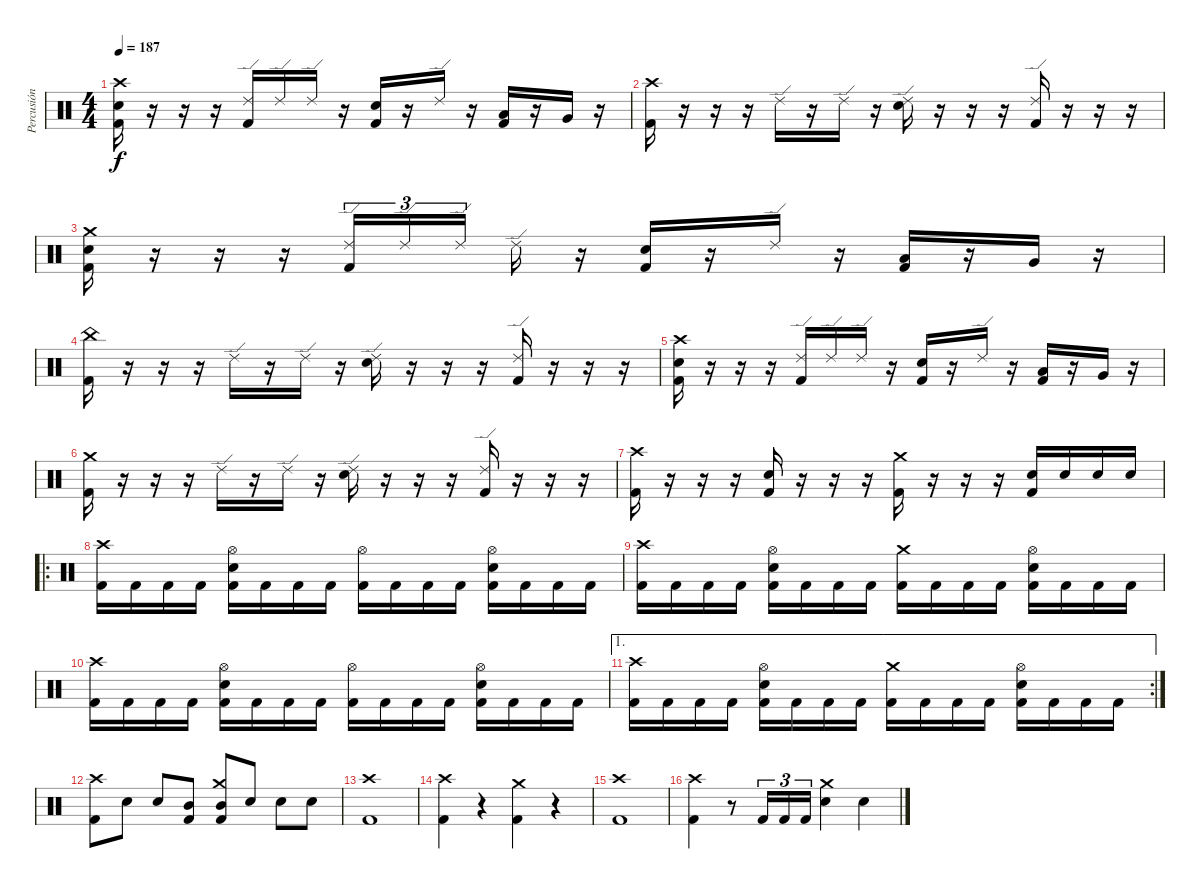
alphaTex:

\track ("Percusión" "Percusión") {instrument percussion}
\staff {score}
\articulation defaults
\ts (4 4)
\tempo 187
\clef neutral
\ks c
("Crash high (hit)" "Electric Snare (hit)" "Kick (hit) 2").16{dy f} r.16 r.16 r.16 ("Ride (edge) 2" "Kick (hit) 2").16 "Ride (edge) 2".16 "Ride (edge) 2".16 r.16 ("Electric Snare (hit)" "Kick (hit) 2").16 r.16 "Ride (edge) 2".16 r.16 ("Low Tom (hit)" "Kick (hit) 2").16 r.16 "Very Low Tom (hit)".16 r.16 |
("Crash high (hit)" "Kick (hit) 2").16 r.16 r.16 r.16 "Ride (edge) 2".16 r.16 "Ride (edge) 2".16 r.16 ("Ride (edge) 2" "Electric Snare (hit)").16 r.16 r.16 r.16 ("Ride (edge) 2" "Kick (hit) 2").16 r.16 r.16 r.16 |
("Crash medium (hit)" "Electric Snare (hit)" "Kick (hit) 2").16 r.16 r.16 r.16 ("Ride (edge) 2" "Kick (hit) 2").16{tu (3 2)} "Ride (edge) 2".16{tu (3 2)} "Ride (edge) 2".16{tu (3 2)} "Ride (edge) 2".16 r.16 ("Electric Snare (hit)" "Kick (hit) 2").16 r.16 "Ride (edge) 2".16 r.16 ("Low Tom (hit)" "Kick (hit) 2").16 r.16 "Very Low Tom (hit)".16 r.16 |
("China (hit)" "Kick (hit) 2").16 r.16 r.16 r.16 "Ride (edge) 2".16 r.16 "Ride (edge) 2".16 r.16 ("Ride (edge) 2" "Electric Snare (hit)").16 r.16 r.16 r.16 ("Ride (edge) 2" "Kick (hit) 2").16 r.16 r.16 r.16 |
("Crash high (hit)" "Electric Snare (hit)" "Kick (hit) 2").16 r.16 r.16 r.16 ("Ride (edge) 2" "Kick (hit) 2").16 "Ride (edge) 2".16 "Ride (edge) 2".16 r.16 ("Electric Snare (hit)" "Kick (hit) 2").16 r.16 "Ride (edge) 2".16 r.16 ("Low Tom (hit)" "Kick (hit) 2").16 r.16 "Very Low Tom (hit)".16 r.16 |
("Crash medium (hit)" "Kick (hit) 2").16 r.16 r.16 r.16 "Ride (edge) 2".16 r.16 "Ride (edge) 2".16 r.16 ("Ride (edge) 2" "Electric Snare (hit)").16 r.16 r.16 r.16 ("Ride (edge) 2" "Kick (hit) 2").16 r.16 r.16 r.16 |
("Crash high (hit)" "Kick (hit) 2").16 r.16 r.16 r.16 ("Electric Snare (hit)" "Kick (hit) 2").16 r.16 r.16 r.16 ("Crash medium (hit)" "Kick (hit) 2").16 r.16 r.16 r.16 ("Electric Snare (hit)" "Kick (hit) 2").16 "Electric Snare (hit)".16 "Electric Snare (hit)".16 "Electric Snare (hit)".16 |
\ro
("Crash high (hit)" "Kick (hit) 2").16 "Kick (hit) 2".16 "Kick (hit) 2".16 "Kick (hit) 2".16 ("Hi-Hat (open)" "Electric Snare (hit)" "Kick (hit) 2").16 "Kick (hit) 2".16 "Kick (hit) 2".16 "Kick (hit) 2".16 ("Hi-Hat (open)" "Kick (hit) 2").16 "Kick (hit) 2".16 "Kick (hit) 2".16 "Kick (hit) 2".16 ("Hi-Hat (open)" "Electric Snare (hit)" "Kick (hit) 2").16 "Kick (hit) 2".16 "Kick (hit) 2".16 "Kick (hit) 2".16 |
("Crash high (hit)" "Kick (hit) 2").16 "Kick (hit) 2".16 "Kick (hit) 2".16 "Kick (hit) 2".16 ("Hi-Hat (open)" "Electric Snare (hit)" "Kick (hit) 2").16 "Kick (hit) 2".16 "Kick (hit) 2".16 "Kick (hit) 2".16 ("Crash medium (hit)" "Kick (hit) 2").16 "Kick (hit) 2".16 "Kick (hit) 2".16 "Kick (hit) 2".16 ("Hi-Hat (open)" "Electric Snare (hit)" "Kick (hit) 2").16 "Kick (hit) 2".16 "Kick (hit) 2".16 "Kick (hit) 2".16 |
("Crash high (hit)" "Kick (hit) 2").16 "Kick (hit) 2".16 "Kick (hit) 2".16 "Kick (hit) 2".16 ("Hi-Hat (open)" "Electric Snare (hit)" "Kick (hit) 2").16 "Kick (hit) 2".16 "Kick (hit) 2".16 "Kick (hit) 2".16 ("Hi-Hat (open)" "Kick (hit) 2").16 "Kick (hit) 2".16 "Kick (hit) 2".16 "Kick (hit) 2".16 ("Hi-Hat (open)" "Electric Snare (hit)" "Kick (hit) 2").16 "Kick (hit) 2".16 "Kick (hit) 2".16 "Kick (hit) 2".16 |
\ae 1
\rc 2
("Crash high (hit)" "Kick (hit) 2").16 "Kick (hit) 2".16 "Kick (hit) 2".16 "Kick (hit) 2".16 ("Hi-Hat (open)" "Electric Snare (hit)" "Kick (hit) 2").16 "Kick (hit) 2".16 "Kick (hit) 2".16 "Kick (hit) 2".16 ("Crash medium (hit)" "Kick (hit) 2").16 "Kick (hit) 2".16 "Kick (hit) 2".16 "Kick (hit) 2".16 ("Hi-Hat (open)" "Electric Snare (hit)" "Kick (hit) 2").16 "Kick (hit) 2".16 "Kick (hit) 2".16 "Kick (hit) 2".16 |
("Crash high (hit)" "Kick (hit) 2").8 "Electric Snare (hit)".8 "Electric Snare (hit)".8 ("Mid Tom (hit)" "Kick (hit) 2").8 ("Crash medium (hit)" "Mid Tom (hit)" "Kick (hit) 2").8 "Electric Snare (hit)".8 "Electric Snare (hit)".8 "Electric Snare (hit)".8 |
\section ("" "")
("Crash high (hit)" "Kick (hit) 2").1 |
("Crash high (hit)" "Kick (hit) 2").4 r.4 ("Crash medium (hit)" "Kick (hit) 2").4 r.4 |
("Crash high (hit)" "Kick (hit) 2").1 |
("Crash high (hit)" "Kick (hit) 2").4 r.8 "Kick (hit) 2".16{tu (3 2)} "Kick (hit) 2".16{tu (3 2)} "Kick (hit) 2".16{tu (3 2)} ("Crash medium (hit)" "Electric Snare (hit)").4 "Electric Snare (hit)".4
